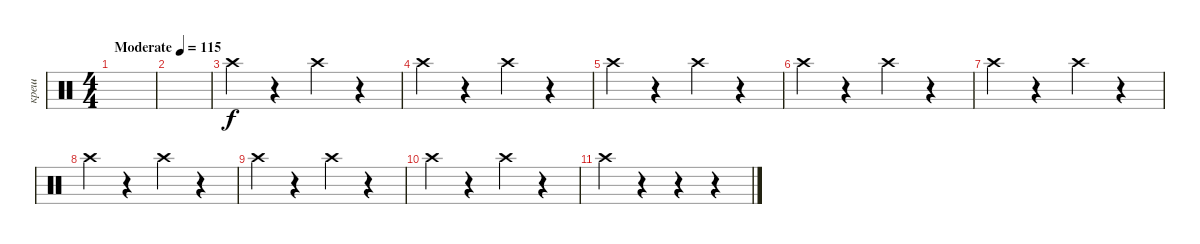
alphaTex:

\track ("креш" "креш") {mute instrument percussion}
\staff {score}
\articulation defaults
\ts (4 4)
\tempo (115 "Moderate")
\clef neutral
\ks c
|
|
"Crash high (hit)".4 r.4 "Crash high (hit)".4 r.4 |
"Crash high (hit)".4 r.4 "Crash high (hit)".4 r.4 |
"Crash high (hit)".4 r.4 "Crash high (hit)".4 r.4 |
"Crash high (hit)".4 r.4 "Crash high (hit)".4 r.4 |
"Crash high (hit)".4 r.4 "Crash high (hit)".4 r.4 |
"Crash high (hit)".4 r.4 "Crash high (hit)".4 r.4 |
"Crash high (hit)".4 r.4 "Crash high (hit)".4 r.4 |
"Crash high (hit)".4 r.4 "Crash high (hit)".4 r.4 |
"Crash high (hit)".4 r.4 r.4 r.4
